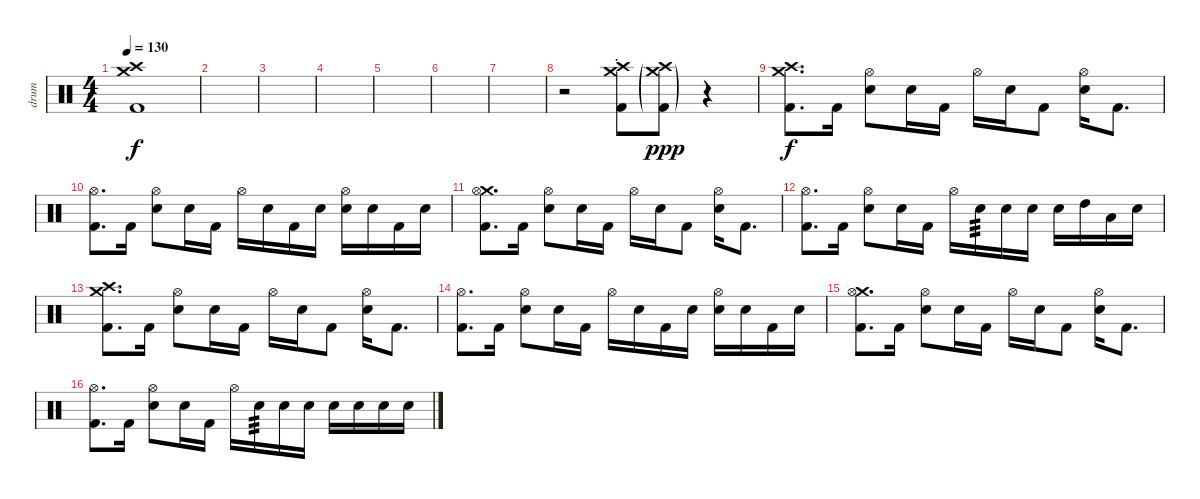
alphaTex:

\track ("drum" "drum") {instrument percussion}
\staff {score}
\articulation defaults
\ts (4 4)
\tempo 130
\clef neutral
\ks c
("Crash high (hit)" "Crash medium (hit)" "Kick (hit) 2").1{dy f} |
|
|
|
|
|
|
r.2 ("Crash medium (hit)"{st} "Crash high (hit)"{st} "Kick (hit) 2"{st}).8 ("Crash medium (hit)"{g} "Crash high (hit)"{g} "Kick (hit) 2"{g}).8{dy ppp} r.4 |
("Crash medium (hit)" "Crash high (hit)" "Kick (hit) 2").8{d dy f} "Kick (hit) 2".16 ("Hi-Hat (open)" "Electric Snare (hit)").8 "Electric Snare (hit)".16 "Kick (hit) 2".16 "Hi-Hat (open)".16 "Electric Snare (hit)".16 "Kick (hit) 2".8 ("Hi-Hat (open)" "Electric Snare (hit)").16 "Kick (hit) 2".8{d} |
("Hi-Hat (open)" "Kick (hit) 2").8{d} "Kick (hit) 2".16 ("Hi-Hat (open)" "Electric Snare (hit)").8 "Electric Snare (hit)".16 "Kick (hit) 2".16 "Hi-Hat (open)".16 "Electric Snare (hit)".16 "Kick (hit) 2".16 "Electric Snare (hit)".16 ("Hi-Hat (open)" "Electric Snare (hit)").16 "Electric Snare (hit)".16 "Kick (hit) 2".16 "Electric Snare (hit)".16 |
("Crash medium (hit)" "Hi-Hat (open)" "Kick (hit) 2").8{d} "Kick (hit) 2".16 ("Hi-Hat (open)" "Electric Snare (hit)").8 "Electric Snare (hit)".16 "Kick (hit) 2".16 "Hi-Hat (open)".16 "Electric Snare (hit)".16 "Kick (hit) 2".8 ("Hi-Hat (open)" "Electric Snare (hit)").16 "Kick (hit) 2".8{d} |
("Hi-Hat (open)" "Kick (hit) 2").8{d} "Kick (hit) 2".16 ("Hi-Hat (open)" "Electric Snare (hit)").8 "Electric Snare (hit)".16 "Kick (hit) 2".16 "Hi-Hat (open)".16 "Electric Snare (hit)".16{tp 3} "Electric Snare (hit)".16 "Electric Snare (hit)".16 "Electric Snare (hit)".16 "High Tom (hit)".16 "Low Tom (hit)".16 "Electric Snare (hit)".16 |
("Crash medium (hit)" "Crash high (hit)" "Kick (hit) 2").8{d} "Kick (hit) 2".16 ("Hi-Hat (open)" "Electric Snare (hit)").8 "Electric Snare (hit)".16 "Kick (hit) 2".16 "Hi-Hat (open)".16 "Electric Snare (hit)".16 "Kick (hit) 2".8 ("Hi-Hat (open)" "Electric Snare (hit)").16 "Kick (hit) 2".8{d} |
("Hi-Hat (open)" "Kick (hit) 2").8{d} "Kick (hit) 2".16 ("Hi-Hat (open)" "Electric Snare (hit)").8 "Electric Snare (hit)".16 "Kick (hit) 2".16 "Hi-Hat (open)".16 "Electric Snare (hit)".16 "Kick (hit) 2".16 "Electric Snare (hit)".16 ("Hi-Hat (open)" "Electric Snare (hit)").16 "Electric Snare (hit)".16 "Kick (hit) 2".16 "Electric Snare (hit)".16 |
("Crash medium (hit)" "Hi-Hat (open)" "Kick (hit) 2").8{d} "Kick (hit) 2".16 ("Hi-Hat (open)" "Electric Snare (hit)").8 "Electric Snare (hit)".16 "Kick (hit) 2".16 "Hi-Hat (open)".16 "Electric Snare (hit)".16 "Kick (hit) 2".8 ("Hi-Hat (open)" "Electric Snare (hit)").16 "Kick (hit) 2".8{d} |
("Hi-Hat (open)" "Kick (hit) 2").8{d} "Kick (hit) 2".16 ("Hi-Hat (open)" "Electric Snare (hit)").8 "Electric Snare (hit)".16 "Kick (hit) 2".16 "Hi-Hat (open)".16 "Electric Snare (hit)".16{tp 3} "Electric Snare (hit)".16 "Electric Snare (hit)".16 "Electric Snare (hit)".16 "Electric Snare (hit)".16 "Electric Snare (hit)".16 "Electric Snare (hit)".16
